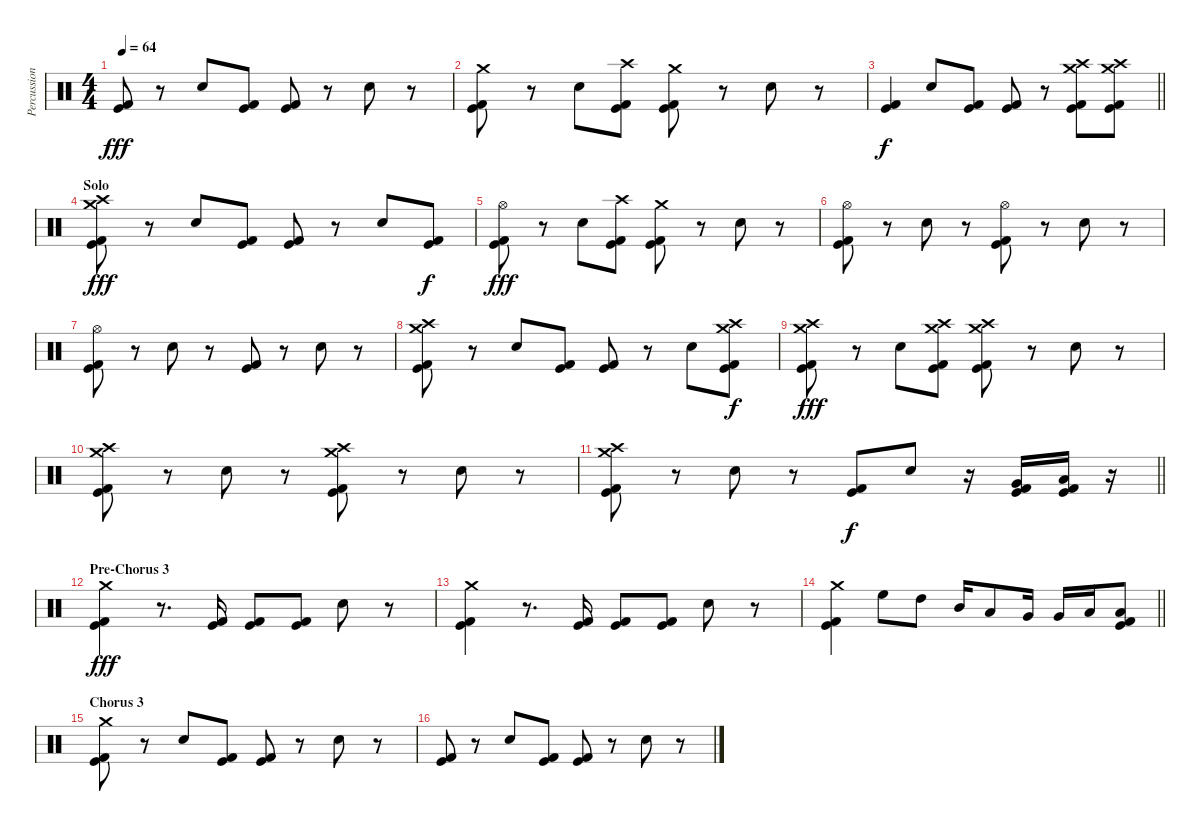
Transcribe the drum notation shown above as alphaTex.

\track ("Percussion" "Percussion") {instrument percussion}
\staff {score}
\articulation defaults
\ts (4 4)
\tempo 64
\clef neutral
\ks c
("Kick (hit) 2" "Kick (hit)").8{dy fff} r.8 "Snare (hit) 2".8 ("Kick (hit) 2" "Kick (hit)").8 ("Kick (hit) 2" "Kick (hit)").8 r.8 "Snare (hit) 2".8 r.8 |
("Crash medium (hit)" "Kick (hit) 2" "Kick (hit)").8 r.8 "Snare (hit) 2".8 ("Crash high (hit)" "Kick (hit) 2" "Kick (hit)").8 ("Crash medium (hit)" "Kick (hit) 2" "Kick (hit)").8 r.8 "Snare (hit) 2".8 r.8 |
\barLineRight lightlight
("Kick (hit) 2" "Kick (hit)").4{dy f} "Snare (hit) 2".8 ("Kick (hit) 2" "Kick (hit)").8 ("Kick (hit) 2" "Kick (hit)").8 r.8 ("Crash medium (hit)" "Crash high (hit)" "Kick (hit) 2" "Kick (hit)").8 ("Crash medium (hit)" "Crash high (hit)" "Kick (hit) 2" "Kick (hit)").8 |
\section ("" "Solo")
("Crash medium (hit)" "Crash high (hit)" "Kick (hit) 2" "Kick (hit)").8{dy fff} r.8 "Snare (hit) 2".8 ("Kick (hit) 2" "Kick (hit)").8 ("Kick (hit) 2" "Kick (hit)").8 r.8 "Snare (hit) 2".8 ("Kick (hit) 2" "Kick (hit)").8{dy f} |
("Hi-Hat (open)" "Kick (hit) 2" "Kick (hit)").8{dy fff} r.8 "Snare (hit) 2".8 ("Crash high (hit)" "Kick (hit) 2" "Kick (hit)").8 ("Crash medium (hit)" "Kick (hit) 2" "Kick (hit)").8 r.8 "Snare (hit) 2".8 r.8 |
("Hi-Hat (open)" "Kick (hit) 2" "Kick (hit)").8 r.8 "Snare (hit) 2".8 r.8 ("Hi-Hat (open)" "Kick (hit) 2" "Kick (hit)").8 r.8 "Snare (hit) 2".8 r.8 |
("Hi-Hat (open)" "Kick (hit) 2" "Kick (hit)").8 r.8 "Snare (hit) 2".8 r.8 ("Kick (hit) 2" "Kick (hit)").8 r.8 "Snare (hit) 2".8 r.8 |
("Crash medium (hit)" "Crash high (hit)" "Kick (hit) 2" "Kick (hit)").8 r.8 "Snare (hit) 2".8 ("Kick (hit) 2" "Kick (hit)").8 ("Kick (hit) 2" "Kick (hit)").8 r.8 "Snare (hit) 2".8 ("Crash medium (hit)" "Crash high (hit)" "Kick (hit) 2" "Kick (hit)").8{dy f} |
("Crash medium (hit)" "Crash high (hit)" "Kick (hit) 2" "Kick (hit)").8{dy fff} r.8 "Snare (hit) 2".8 ("Crash medium (hit)" "Crash high (hit)" "Kick (hit) 2" "Kick (hit)").8 ("Crash medium (hit)" "Crash high (hit)" "Kick (hit) 2" "Kick (hit)").8 r.8 "Snare (hit) 2".8 r.8 |
("Crash medium (hit)" "Crash high (hit)" "Kick (hit) 2" "Kick (hit)").8 r.8 "Snare (hit) 2".8 r.8 ("Crash medium (hit)" "Crash high (hit)" "Kick (hit) 2" "Kick (hit)").8 r.8 "Snare (hit) 2".8 r.8 |
\barLineRight lightlight
("Crash medium (hit)" "Crash high (hit)" "Kick (hit) 2" "Kick (hit)").8 r.8 "Snare (hit) 2".8 r.8 ("Kick (hit) 2" "Kick (hit)").8{dy f} "Snare (hit) 2".8 r.16 ("Very Low Tom (hit)" "Kick (hit) 2" "Kick (hit)").16 ("Low Floor Tom (hit)" "Kick (hit) 2" "Kick (hit)").16 r.16 |
\section ("" "Pre-Chorus 3")
("Crash medium (hit)" "Kick (hit) 2" "Kick (hit)").4{dy fff} r.8{d} ("Kick (hit) 2" "Kick (hit)").16 ("Kick (hit) 2" "Kick (hit)").8 ("Kick (hit) 2" "Kick (hit)").8 "Snare (hit) 2".8 r.8 |
("Crash medium (hit)" "Kick (hit) 2" "Kick (hit)").4 r.8{d} ("Kick (hit) 2" "Kick (hit)").16 ("Kick (hit) 2" "Kick (hit)").8 ("Kick (hit) 2" "Kick (hit)").8 "Snare (hit) 2".8 r.8 |
\barLineRight lightlight
("Crash medium (hit)" "Kick (hit) 2" "Kick (hit)").4 "High Floor Tom (hit)".8 "High Tom (hit)".8 "Mid Tom (hit)".16 "Low Tom (hit)".8 "Very Low Tom (hit)".16 "Very Low Tom (hit)".16 "Low Floor Tom (hit)".16 ("Low Floor Tom (hit)" "Kick (hit) 2" "Kick (hit)").8 |
\section ("" "Chorus 3")
("Crash medium (hit)" "Kick (hit) 2" "Kick (hit)").8 r.8 "Snare (hit) 2".8 ("Kick (hit) 2" "Kick (hit)").8 ("Kick (hit) 2" "Kick (hit)").8 r.8 "Snare (hit) 2".8 r.8 |
("Kick (hit) 2" "Kick (hit)").8 r.8 "Snare (hit) 2".8 ("Kick (hit) 2" "Kick (hit)").8 ("Kick (hit) 2" "Kick (hit)").8 r.8 "Snare (hit) 2".8 r.8
